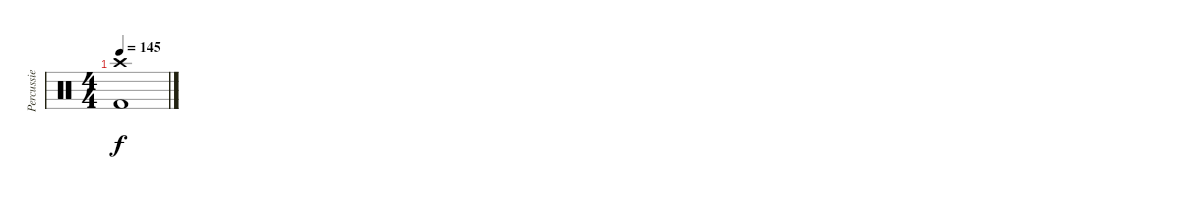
\track ("Percussie" "Percussie") {instrument percussion}
\staff {score}
\articulation defaults
\ts (4 4)
\tempo 145
\clef neutral
\ks c
("Crash high (hit)" "Kick (hit) 2").1{dy f}
